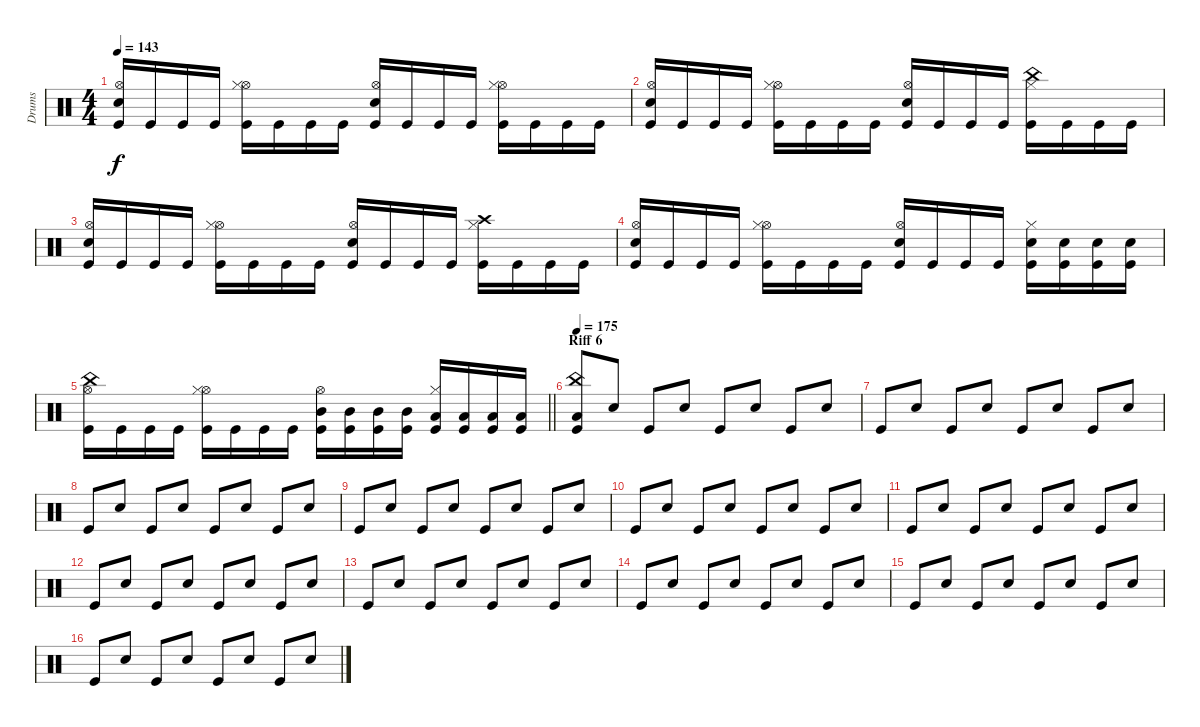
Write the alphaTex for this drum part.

\track ("Drums" "Drums") {instrument percussion}
\staff {score}
\articulation defaults
\ts (4 4)
\tempo 143
\clef neutral
\ks c
("Snare (hit) 2" "Hi-Hat (open)" "Kick (hit)").16{dy f} "Kick (hit)".16 "Kick (hit)".16 "Kick (hit)".16 ("Hi-Hat (open)" "Hi-Hat (closed)" "Kick (hit)").16 "Kick (hit)".16 "Kick (hit)".16 "Kick (hit)".16 ("Snare (hit) 2" "Hi-Hat (open)" "Kick (hit)").16 "Kick (hit)".16 "Kick (hit)".16 "Kick (hit)".16 ("Hi-Hat (open)" "Hi-Hat (closed)" "Kick (hit)").16 "Kick (hit)".16 "Kick (hit)".16 "Kick (hit)".16 |
("Snare (hit) 2" "Hi-Hat (open)" "Kick (hit)").16 "Kick (hit)".16 "Kick (hit)".16 "Kick (hit)".16 ("Hi-Hat (open)" "Hi-Hat (closed)" "Kick (hit)").16 "Kick (hit)".16 "Kick (hit)".16 "Kick (hit)".16 ("Snare (hit) 2" "Hi-Hat (open)" "Kick (hit)").16 "Kick (hit)".16 "Kick (hit)".16 "Kick (hit)".16 ("China (hit)" "Hi-Hat (closed)" "Kick (hit)").16 "Kick (hit)".16 "Kick (hit)".16 "Kick (hit)".16 |
("Snare (hit) 2" "Hi-Hat (open)" "Kick (hit)").16 "Kick (hit)".16 "Kick (hit)".16 "Kick (hit)".16 ("Hi-Hat (open)" "Hi-Hat (closed)" "Kick (hit)").16 "Kick (hit)".16 "Kick (hit)".16 "Kick (hit)".16 ("Snare (hit) 2" "Hi-Hat (open)" "Kick (hit)").16 "Kick (hit)".16 "Kick (hit)".16 "Kick (hit)".16 ("Crash high (hit)" "Hi-Hat (closed)" "Kick (hit)").16 "Kick (hit)".16 "Kick (hit)".16 "Kick (hit)".16 |
("Snare (hit) 2" "Hi-Hat (open)" "Kick (hit)").16 "Kick (hit)".16 "Kick (hit)".16 "Kick (hit)".16 ("Hi-Hat (open)" "Hi-Hat (closed)" "Kick (hit)").16 "Kick (hit)".16 "Kick (hit)".16 "Kick (hit)".16 ("Snare (hit) 2" "Hi-Hat (open)" "Kick (hit)").16 "Kick (hit)".16 "Kick (hit)".16 "Kick (hit)".16 ("Snare (hit) 2" "Hi-Hat (closed)" "Kick (hit)").16 ("Snare (hit) 2" "Kick (hit)").16 ("Snare (hit) 2" "Kick (hit)").16 ("Snare (hit) 2" "Kick (hit)").16 |
\barLineRight lightlight
("China (hit)" "Hi-Hat (open)" "Kick (hit)").16 "Kick (hit)".16 "Kick (hit)".16 "Kick (hit)".16 ("Hi-Hat (open)" "Hi-Hat (closed)" "Kick (hit)").16 "Kick (hit)".16 "Kick (hit)".16 "Kick (hit)".16 ("Mid Tom (hit)" "Hi-Hat (open)" "Kick (hit)").16 ("Mid Tom (hit)" "Kick (hit)").16 ("Mid Tom (hit)" "Kick (hit)").16 ("Mid Tom (hit)" "Kick (hit)").16 ("Low Tom (hit)" "Hi-Hat (closed)" "Kick (hit)").16 ("Low Tom (hit)" "Kick (hit)").16 ("Low Tom (hit)" "Kick (hit)").16 ("Low Tom (hit)" "Kick (hit)").16 |
\section ("" "Riff 6")
\tempo 175
("China (hit)" "Low Floor Tom (hit)" "Kick (hit)").8 "Snare (hit) 2".8 "Kick (hit)".8 "Snare (hit) 2".8 "Kick (hit)".8 "Snare (hit) 2".8 "Kick (hit)".8 "Snare (hit) 2".8 |
"Kick (hit)".8 "Snare (hit) 2".8 "Kick (hit)".8 "Snare (hit) 2".8 "Kick (hit)".8 "Snare (hit) 2".8 "Kick (hit)".8 "Snare (hit) 2".8 |
"Kick (hit)".8 "Snare (hit) 2".8 "Kick (hit)".8 "Snare (hit) 2".8 "Kick (hit)".8 "Snare (hit) 2".8 "Kick (hit)".8 "Snare (hit) 2".8 |
"Kick (hit)".8 "Snare (hit) 2".8 "Kick (hit)".8 "Snare (hit) 2".8 "Kick (hit)".8 "Snare (hit) 2".8 "Kick (hit)".8 "Snare (hit) 2".8 |
"Kick (hit)".8 "Snare (hit) 2".8 "Kick (hit)".8 "Snare (hit) 2".8 "Kick (hit)".8 "Snare (hit) 2".8 "Kick (hit)".8 "Snare (hit) 2".8 |
"Kick (hit)".8 "Snare (hit) 2".8 "Kick (hit)".8 "Snare (hit) 2".8 "Kick (hit)".8 "Snare (hit) 2".8 "Kick (hit)".8 "Snare (hit) 2".8 |
"Kick (hit)".8 "Snare (hit) 2".8 "Kick (hit)".8 "Snare (hit) 2".8 "Kick (hit)".8 "Snare (hit) 2".8 "Kick (hit)".8 "Snare (hit) 2".8 |
"Kick (hit)".8 "Snare (hit) 2".8 "Kick (hit)".8 "Snare (hit) 2".8 "Kick (hit)".8 "Snare (hit) 2".8 "Kick (hit)".8 "Snare (hit) 2".8 |
"Kick (hit)".8 "Snare (hit) 2".8 "Kick (hit)".8 "Snare (hit) 2".8 "Kick (hit)".8 "Snare (hit) 2".8 "Kick (hit)".8 "Snare (hit) 2".8 |
"Kick (hit)".8 "Snare (hit) 2".8 "Kick (hit)".8 "Snare (hit) 2".8 "Kick (hit)".8 "Snare (hit) 2".8 "Kick (hit)".8 "Snare (hit) 2".8 |
"Kick (hit)".8 "Snare (hit) 2".8 "Kick (hit)".8 "Snare (hit) 2".8 "Kick (hit)".8 "Snare (hit) 2".8 "Kick (hit)".8 "Snare (hit) 2".8
